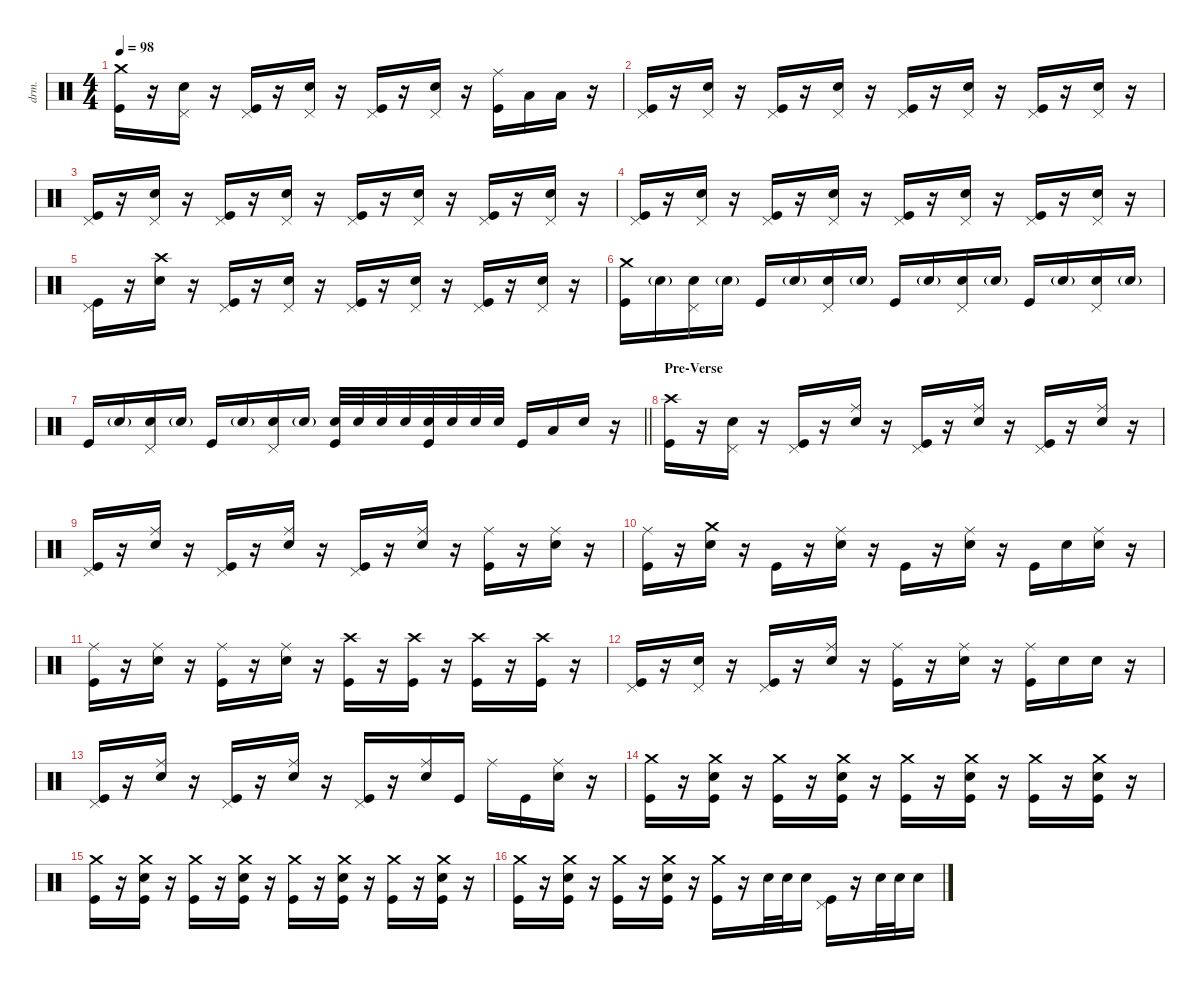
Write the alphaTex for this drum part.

\defaultSystemsLayout 4
\hideDynamics
\bracketExtendMode nobrackets
\otherSystemsTrackNameOrientation horizontal
\track ("Duris Maxwell" "drm.") {instrument percussion}
\staff {score}
\articulation defaults
\ts (4 4)
\tempo 98
\clef neutral
\ks c
("Crash medium (hit)" "Kick (hit)").16{dy f beam Down} r.16{beam Down} ("Pedal Hi-Hat (hit)" "Snare (hit) 2").16{beam Down} r.16{beam Down} ("Pedal Hi-Hat (hit)" "Kick (hit)").16{beam Up} r.16{beam Up} ("Pedal Hi-Hat (hit)" "Snare (hit) 2").16{beam Up} r.16{beam Up} ("Pedal Hi-Hat (hit)" "Kick (hit)").16{beam Up} r.16{beam Up} ("Pedal Hi-Hat (hit)" "Snare (hit) 2").16{beam Up} r.16{beam Up} ("Ride (middle)" "Kick (hit)").16{beam Down} "Low Tom (hit)".16{beam Down} "Low Tom (hit)".16{beam Down} r.16{beam Down} |
("Pedal Hi-Hat (hit)" "Kick (hit)").16{beam Up} r.16{beam Up} ("Pedal Hi-Hat (hit)" "Snare (hit) 2").16{beam Up} r.16{beam Up} ("Pedal Hi-Hat (hit)" "Kick (hit)").16{beam Up} r.16{beam Up} ("Pedal Hi-Hat (hit)" "Snare (hit) 2").16{beam Up} r.16{beam Up} ("Pedal Hi-Hat (hit)" "Kick (hit)").16{beam Up} r.16{beam Up} ("Pedal Hi-Hat (hit)" "Snare (hit) 2").16{beam Up} r.16{beam Up} ("Pedal Hi-Hat (hit)" "Kick (hit)").16{beam Up} r.16{beam Up} ("Pedal Hi-Hat (hit)" "Snare (hit) 2").16{beam Up} r.16{beam Up} |
("Pedal Hi-Hat (hit)" "Kick (hit)").16{beam Up} r.16{beam Up} ("Pedal Hi-Hat (hit)" "Snare (hit) 2").16{beam Up} r.16{beam Up} ("Pedal Hi-Hat (hit)" "Kick (hit)").16{beam Up} r.16{beam Up} ("Pedal Hi-Hat (hit)" "Snare (hit) 2").16{beam Up} r.16{beam Up} ("Pedal Hi-Hat (hit)" "Kick (hit)").16{beam Up} r.16{beam Up} ("Pedal Hi-Hat (hit)" "Snare (hit) 2").16{beam Up} r.16{beam Up} ("Pedal Hi-Hat (hit)" "Kick (hit)").16{beam Up} r.16{beam Up} ("Pedal Hi-Hat (hit)" "Snare (hit) 2").16{beam Up} r.16{beam Up} |
("Pedal Hi-Hat (hit)" "Kick (hit)").16{beam Up} r.16{beam Up} ("Pedal Hi-Hat (hit)" "Snare (hit) 2").16{beam Up} r.16{beam Up} ("Pedal Hi-Hat (hit)" "Kick (hit)").16{beam Up} r.16{beam Up} ("Pedal Hi-Hat (hit)" "Snare (hit) 2").16{beam Up} r.16{beam Up} ("Pedal Hi-Hat (hit)" "Kick (hit)").16{beam Up} r.16{beam Up} ("Pedal Hi-Hat (hit)" "Snare (hit) 2").16{beam Up} r.16{beam Up} ("Pedal Hi-Hat (hit)" "Kick (hit)").16{beam Up} r.16{beam Up} ("Pedal Hi-Hat (hit)" "Snare (hit) 2").16{beam Up} r.16{beam Up} |
("Pedal Hi-Hat (hit)" "Kick (hit)").16{beam Down} r.16{beam Down} ("Crash high (hit)" "Snare (hit) 2").16{beam Down} r.16{beam Down} ("Pedal Hi-Hat (hit)" "Kick (hit)").16{beam Up} r.16{beam Up} ("Pedal Hi-Hat (hit)" "Snare (hit) 2").16{beam Up} r.16{beam Up} ("Pedal Hi-Hat (hit)" "Kick (hit)").16{beam Up} r.16{beam Up} ("Pedal Hi-Hat (hit)" "Snare (hit) 2").16{beam Up} r.16{beam Up} ("Pedal Hi-Hat (hit)" "Kick (hit)").16{beam Up} r.16{beam Up} ("Pedal Hi-Hat (hit)" "Snare (hit) 2").16{beam Up} r.16{beam Up} |
("Crash medium (hit)" "Kick (hit)").16{beam Down} "Snare (hit) 2"{g}.16{beam Down} ("Pedal Hi-Hat (hit)" "Snare (hit) 2").16{beam Down} "Snare (hit) 2"{g}.16{beam Down} "Kick (hit)".16{beam Up} "Snare (hit) 2"{g}.16{beam Up} ("Pedal Hi-Hat (hit)" "Snare (hit) 2").16{beam Up} "Snare (hit) 2"{g}.16{beam Up} "Kick (hit)".16{beam Up} "Snare (hit) 2"{g}.16{beam Up} ("Pedal Hi-Hat (hit)" "Snare (hit) 2").16{beam Up} "Snare (hit) 2"{g}.16{beam Up} "Kick (hit)".16{beam Up} "Snare (hit) 2"{g}.16{beam Up} ("Pedal Hi-Hat (hit)" "Snare (hit) 2").16{beam Up} "Snare (hit) 2"{g}.16{beam Up} |
\barLineRight lightlight "Kick (hit)".16{beam Up} "Snare (hit) 2"{g}.16{beam Up}
("Pedal Hi-Hat (hit)" "Snare (hit) 2").16{beam Up} "Snare (hit) 2"{g}.16{beam Up} "Kick (hit)".16{beam Up} "Snare (hit) 2"{g}.16{beam Up} ("Pedal Hi-Hat (hit)" "Snare (hit) 2").16{beam Up} "Snare (hit) 2"{g}.16{beam Up} ("Snare (hit) 2" "Kick (hit)").32{beam Up} "Snare (hit) 2".32{beam Up} "Snare (hit) 2".32{beam Up} "Snare (hit) 2".32{beam Up} ("Snare (hit) 2" "Kick (hit)").32{beam Up} "Snare (hit) 2".32{beam Up} "Snare (hit) 2".32{beam Up} "Snare (hit) 2".32{beam Up} "Kick (hit)".16{beam Up} "Low Tom (hit)".16{beam Up} "Snare (hit) 2".16{beam Up} r.16{beam Up} |
\section ("" "Pre-Verse")
("Crash high (hit)" "Kick (hit)").16{beam Down} r.16{beam Down} ("Pedal Hi-Hat (hit)" "Snare (hit) 2").16{beam Down} r.16{beam Down} ("Pedal Hi-Hat (hit)" "Kick (hit)").16{beam Up} r.16{beam Up} ("Ride (middle)" "Snare (hit) 2").16{beam Up} r.16{beam Up} ("Pedal Hi-Hat (hit)" "Kick (hit)").16{beam Up} r.16{beam Up} ("Ride (middle)" "Snare (hit) 2").16{beam Up} r.16{beam Up} ("Pedal Hi-Hat (hit)" "Kick (hit)").16{beam Up} r.16{beam Up} ("Ride (middle)" "Snare (hit) 2").16{beam Up} r.16{beam Up} |
("Pedal Hi-Hat (hit)" "Kick (hit)").16{beam Up} r.16{beam Up} ("Ride (middle)" "Snare (hit) 2").16{beam Up} r.16{beam Up} ("Pedal Hi-Hat (hit)" "Kick (hit)").16{beam Up} r.16{beam Up} ("Ride (middle)" "Snare (hit) 2").16{beam Up} r.16{beam Up} ("Pedal Hi-Hat (hit)" "Kick (hit)").16{beam Up} r.16{beam Up} ("Ride (middle)" "Snare (hit) 2").16{beam Up} r.16{beam Up} ("Ride (middle)" "Kick (hit)").16{beam Down} r.16{beam Down} ("Ride (middle)" "Snare (hit) 2").16{beam Down} r.16{beam Down} |
("Ride (middle)" "Kick (hit)").16{beam Down} r.16{beam Down} ("Crash medium (hit)" "Snare (hit) 2").16{beam Down} r.16{beam Down} "Kick (hit)".16{beam Down} r.16{beam Down} ("Ride (middle)" "Snare (hit) 2").16{beam Down} r.16{beam Down} "Kick (hit)".16{beam Down} r.16{beam Down} ("Ride (middle)" "Snare (hit) 2").16{beam Down} r.16{beam Down} "Kick (hit)".16{beam Down} "Snare (hit) 2".16{beam Down} ("Ride (middle)" "Snare (hit) 2").16{beam Down} r.16{beam Down} |
("Ride (middle)" "Kick (hit)").16{beam Down} r.16{beam Down} ("Ride (middle)" "Snare (hit) 2").16{beam Down} r.16{beam Down} ("Ride (middle)" "Kick (hit)").16{beam Down} r.16{beam Down} ("Ride (middle)" "Snare (hit) 2").16{beam Down} r.16{beam Down} ("Crash high (hit)" "Kick (hit)").16{beam Down} r.16{beam Down} ("Crash high (hit)" "Kick (hit)").16{beam Down} r.16{beam Down} ("Crash high (hit)" "Kick (hit)").16{beam Down} r.16{beam Down} ("Crash high (hit)" "Kick (hit)").16{beam Down} r.16{beam Down} |
("Pedal Hi-Hat (hit)" "Kick (hit)").16{beam Up} r.16{beam Up} ("Pedal Hi-Hat (hit)" "Snare (hit) 2").16{beam Up} r.16{beam Up} ("Pedal Hi-Hat (hit)" "Kick (hit)").16{beam Up} r.16{beam Up} ("Ride (middle)" "Snare (hit) 2").16{beam Up} r.16{beam Up} ("Ride (middle)" "Kick (hit)").16{beam Down} r.16{beam Down} ("Ride (middle)" "Snare (hit) 2").16{beam Down} r.16{beam Down} ("Ride (middle)" "Kick (hit)").16{beam Down} "Snare (hit) 2".16{beam Down} "Snare (hit) 2".16{beam Down} r.16{beam Down} |
("Pedal Hi-Hat (hit)" "Kick (hit)").16{beam Up} r.16{beam Up} ("Ride (middle)" "Snare (hit) 2").16{beam Up} r.16{beam Up} ("Pedal Hi-Hat (hit)" "Kick (hit)").16{beam Up} r.16{beam Up} ("Ride (middle)" "Snare (hit) 2").16{beam Up} r.16{beam Up} ("Pedal Hi-Hat (hit)" "Kick (hit)").16{beam Up} r.16{beam Up} ("Ride (middle)" "Snare (hit) 2").16{beam Up} "Kick (hit)".16{beam Up} "Ride (middle)".16{beam Down} "Kick (hit)".16{beam Down} ("Ride (middle)" "Snare (hit) 2").16{beam Down} r.16{beam Down} |
("Crash medium (hit)" "Kick (hit)").16{beam Down} r.16{beam Down} ("Crash medium (hit)" "Snare (hit) 2" "Kick (hit)").16{beam Down} r.16{beam Down} ("Crash medium (hit)" "Kick (hit)").16{beam Down} r.16{beam Down} ("Crash medium (hit)" "Snare (hit) 2" "Kick (hit)").16{beam Down} r.16{beam Down} ("Crash medium (hit)" "Kick (hit)").16{beam Down} r.16{beam Down} ("Crash medium (hit)" "Snare (hit) 2" "Kick (hit)").16{beam Down} r.16{beam Down} ("Crash medium (hit)" "Kick (hit)").16{beam Down} r.16{beam Down} ("Crash medium (hit)" "Snare (hit) 2" "Kick (hit)").16{beam Down} r.16{beam Down} |
("Crash medium (hit)" "Kick (hit)").16{beam Down} r.16{beam Down} ("Crash medium (hit)" "Snare (hit) 2" "Kick (hit)").16{beam Down} r.16{beam Down} ("Crash medium (hit)" "Kick (hit)").16{beam Down} r.16{beam Down} ("Crash medium (hit)" "Snare (hit) 2" "Kick (hit)").16{beam Down} r.16{beam Down} ("Crash medium (hit)" "Kick (hit)").16{beam Down} r.16{beam Down} ("Crash medium (hit)" "Snare (hit) 2" "Kick (hit)").16{beam Down} r.16{beam Down} ("Crash medium (hit)" "Kick (hit)").16{beam Down} r.16{beam Down} ("Crash medium (hit)" "Snare (hit) 2" "Kick (hit)").16{beam Down} r.16{beam Down} |
("Crash medium (hit)" "Kick (hit)").16{beam Down} r.16{beam Down} ("Crash medium (hit)" "Snare (hit) 2" "Kick (hit)").16{beam Down} r.16{beam Down} ("Crash medium (hit)" "Kick (hit)").16{beam Down} r.16{beam Down} ("Crash medium (hit)" "Snare (hit) 2" "Kick (hit)").16{beam Down} r.16{beam Down} ("Crash medium (hit)" "Kick (hit)").16{beam Down} r.16{beam Down} "Snare (hit) 2".32{beam Down} "Snare (hit) 2".32{beam Down} "Snare (hit) 2".16{beam Down} ("Pedal Hi-Hat (hit)" "Kick (hit)").16{beam Down} r.16{beam Down} "Snare (hit) 2".32{beam Down} "Snare (hit) 2".32{beam Down} "Snare (hit) 2".16{beam Down}
